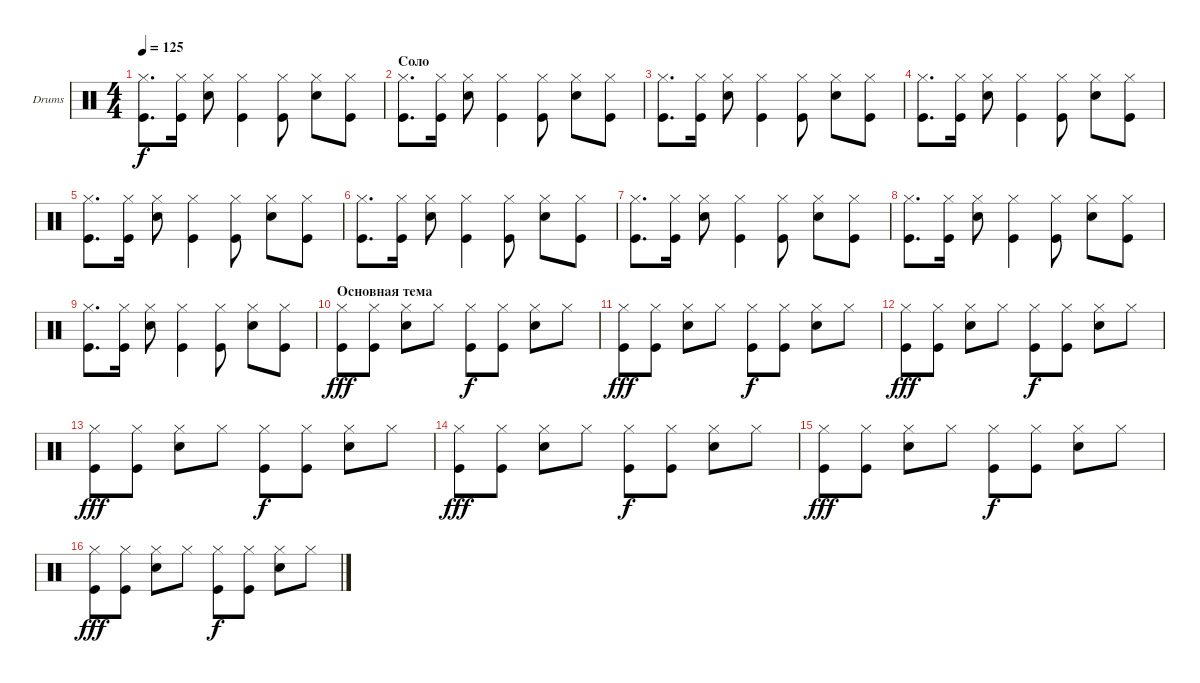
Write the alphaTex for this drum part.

\defaultSystemsLayout 4
\bracketExtendMode groupsimilarinstruments
\firstSystemTrackNameOrientation horizontal
\otherSystemsTrackNameOrientation horizontal
\track ("Drumkit" "Drums") {instrument percussion}
\staff {score}
\articulation defaults
\ts (4 4)
\tempo 125
\clef neutral
\ks c
("Kick (hit)" "Hi-Hat (closed)").8{d dy f} ("Kick (hit)" "Hi-Hat (closed)").16 ("Snare (hit) 2" "Hi-Hat (closed)").8 ("Kick (hit)" "Hi-Hat (closed)").4 ("Kick (hit)" "Hi-Hat (closed)").8 ("Snare (hit) 2" "Hi-Hat (closed)").8 ("Kick (hit)" "Hi-Hat (closed)").8 |
\section ("" "Соло")
("Kick (hit)" "Hi-Hat (closed)").8{d} ("Kick (hit)" "Hi-Hat (closed)").16 ("Snare (hit) 2" "Hi-Hat (closed)").8 ("Kick (hit)" "Hi-Hat (closed)").4 ("Kick (hit)" "Hi-Hat (closed)").8 ("Snare (hit) 2" "Hi-Hat (closed)").8 ("Kick (hit)" "Hi-Hat (closed)").8 |
("Kick (hit)" "Hi-Hat (closed)").8{d} ("Kick (hit)" "Hi-Hat (closed)").16 ("Snare (hit) 2" "Hi-Hat (closed)").8 ("Kick (hit)" "Hi-Hat (closed)").4 ("Kick (hit)" "Hi-Hat (closed)").8 ("Snare (hit) 2" "Hi-Hat (closed)").8 ("Kick (hit)" "Hi-Hat (closed)").8 |
("Kick (hit)" "Hi-Hat (closed)").8{d} ("Kick (hit)" "Hi-Hat (closed)").16 ("Snare (hit) 2" "Hi-Hat (closed)").8 ("Kick (hit)" "Hi-Hat (closed)").4 ("Kick (hit)" "Hi-Hat (closed)").8 ("Snare (hit) 2" "Hi-Hat (closed)").8 ("Kick (hit)" "Hi-Hat (closed)").8 |
("Kick (hit)" "Hi-Hat (closed)").8{d} ("Kick (hit)" "Hi-Hat (closed)").16 ("Snare (hit) 2" "Hi-Hat (closed)").8 ("Kick (hit)" "Hi-Hat (closed)").4 ("Kick (hit)" "Hi-Hat (closed)").8 ("Snare (hit) 2" "Hi-Hat (closed)").8 ("Kick (hit)" "Hi-Hat (closed)").8 |
("Kick (hit)" "Hi-Hat (closed)").8{d} ("Kick (hit)" "Hi-Hat (closed)").16 ("Snare (hit) 2" "Hi-Hat (closed)").8 ("Kick (hit)" "Hi-Hat (closed)").4 ("Kick (hit)" "Hi-Hat (closed)").8 ("Snare (hit) 2" "Hi-Hat (closed)").8 ("Kick (hit)" "Hi-Hat (closed)").8 |
("Kick (hit)" "Hi-Hat (closed)").8{d} ("Kick (hit)" "Hi-Hat (closed)").16 ("Snare (hit) 2" "Hi-Hat (closed)").8 ("Kick (hit)" "Hi-Hat (closed)").4 ("Kick (hit)" "Hi-Hat (closed)").8 ("Snare (hit) 2" "Hi-Hat (closed)").8 ("Kick (hit)" "Hi-Hat (closed)").8 |
("Kick (hit)" "Hi-Hat (closed)").8{d} ("Kick (hit)" "Hi-Hat (closed)").16 ("Snare (hit) 2" "Hi-Hat (closed)").8 ("Kick (hit)" "Hi-Hat (closed)").4 ("Kick (hit)" "Hi-Hat (closed)").8 ("Snare (hit) 2" "Hi-Hat (closed)").8 ("Kick (hit)" "Hi-Hat (closed)").8 |
("Kick (hit)" "Hi-Hat (closed)").8{d} ("Kick (hit)" "Hi-Hat (closed)").16 ("Snare (hit) 2" "Hi-Hat (closed)").8 ("Kick (hit)" "Hi-Hat (closed)").4 ("Kick (hit)" "Hi-Hat (closed)").8 ("Snare (hit) 2" "Hi-Hat (closed)").8 ("Kick (hit)" "Hi-Hat (closed)").8 |
\section ("" "Основная тема")
("Hi-Hat (closed)" "Kick (hit)").8{dy fff} ("Hi-Hat (closed)" "Kick (hit)").8 ("Hi-Hat (closed)" "Snare (hit) 2").8 "Hi-Hat (closed)".8 ("Hi-Hat (closed)" "Kick (hit)").8{dy f} ("Hi-Hat (closed)" "Kick (hit)").8 ("Hi-Hat (closed)" "Snare (hit) 2").8 "Hi-Hat (closed)".8 |
("Hi-Hat (closed)" "Kick (hit)").8{dy fff} ("Hi-Hat (closed)" "Kick (hit)").8 ("Hi-Hat (closed)" "Snare (hit) 2").8 "Hi-Hat (closed)".8 ("Hi-Hat (closed)" "Kick (hit)").8{dy f} ("Hi-Hat (closed)" "Kick (hit)").8 ("Hi-Hat (closed)" "Snare (hit) 2").8 "Hi-Hat (closed)".8 |
("Hi-Hat (closed)" "Kick (hit)").8{dy fff} ("Hi-Hat (closed)" "Kick (hit)").8 ("Hi-Hat (closed)" "Snare (hit) 2").8 "Hi-Hat (closed)".8 ("Hi-Hat (closed)" "Kick (hit)").8{dy f} ("Hi-Hat (closed)" "Kick (hit)").8 ("Hi-Hat (closed)" "Snare (hit) 2").8 "Hi-Hat (closed)".8 |
("Hi-Hat (closed)" "Kick (hit)").8{dy fff} ("Hi-Hat (closed)" "Kick (hit)").8 ("Hi-Hat (closed)" "Snare (hit) 2").8 "Hi-Hat (closed)".8 ("Hi-Hat (closed)" "Kick (hit)").8{dy f} ("Hi-Hat (closed)" "Kick (hit)").8 ("Hi-Hat (closed)" "Snare (hit) 2").8 "Hi-Hat (closed)".8 |
("Hi-Hat (closed)" "Kick (hit)").8{dy fff} ("Hi-Hat (closed)" "Kick (hit)").8 ("Hi-Hat (closed)" "Snare (hit) 2").8 "Hi-Hat (closed)".8 ("Hi-Hat (closed)" "Kick (hit)").8{dy f} ("Hi-Hat (closed)" "Kick (hit)").8 ("Hi-Hat (closed)" "Snare (hit) 2").8 "Hi-Hat (closed)".8 |
("Hi-Hat (closed)" "Kick (hit)").8{dy fff} ("Hi-Hat (closed)" "Kick (hit)").8 ("Hi-Hat (closed)" "Snare (hit) 2").8 "Hi-Hat (closed)".8 ("Hi-Hat (closed)" "Kick (hit)").8{dy f} ("Hi-Hat (closed)" "Kick (hit)").8 ("Hi-Hat (closed)" "Snare (hit) 2").8 "Hi-Hat (closed)".8 |
("Hi-Hat (closed)" "Kick (hit)").8{dy fff} ("Hi-Hat (closed)" "Kick (hit)").8 ("Hi-Hat (closed)" "Snare (hit) 2").8 "Hi-Hat (closed)".8 ("Hi-Hat (closed)" "Kick (hit)").8{dy f} ("Hi-Hat (closed)" "Kick (hit)").8 ("Hi-Hat (closed)" "Snare (hit) 2").8 "Hi-Hat (closed)".8
